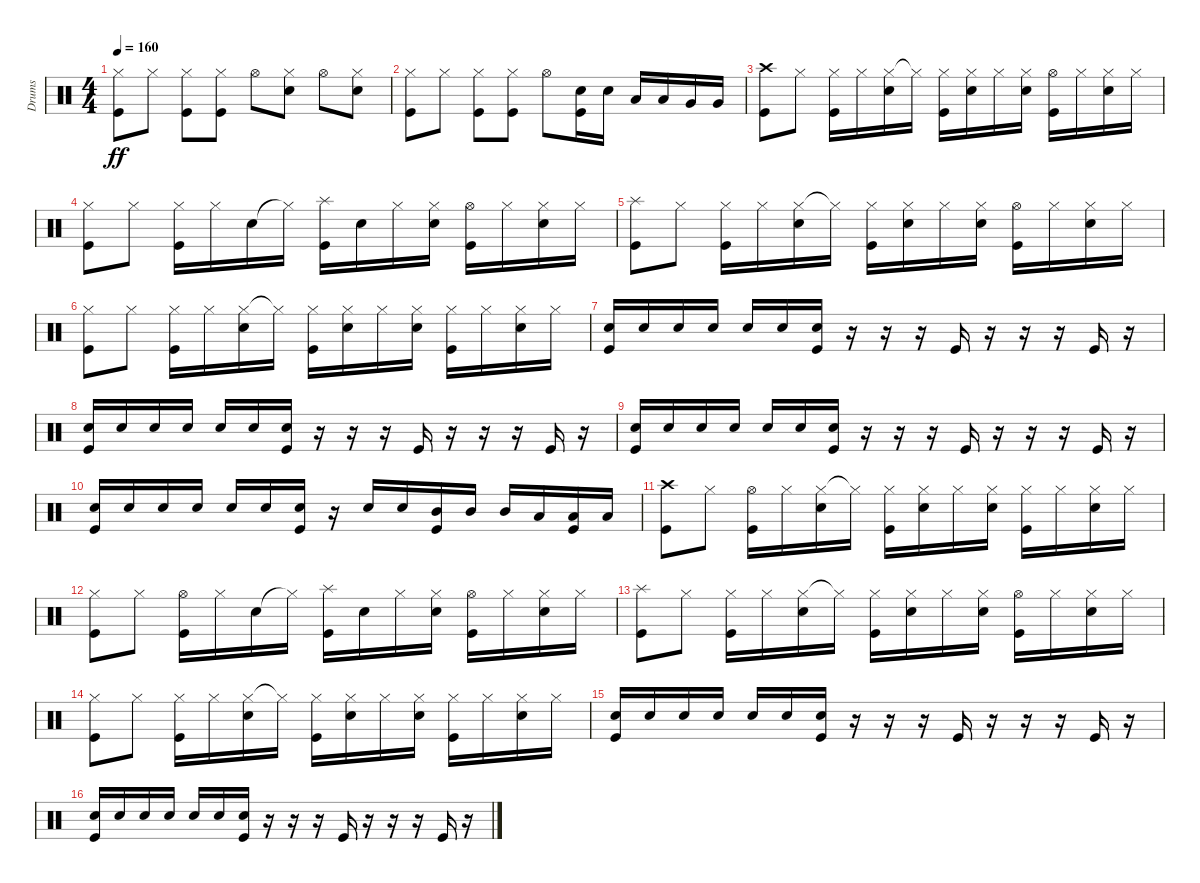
\track ("Drums" "Drums") {instrument percussion}
\staff {score}
\articulation defaults
\ts (4 4)
\tempo 160
\clef neutral
\ks c
("Hi-Hat (closed)" "Kick (hit)").8{dy ff} "Hi-Hat (closed)".8 ("Hi-Hat (closed)" "Kick (hit)").8 ("Hi-Hat (closed)" "Kick (hit)").8 "Hi-Hat (open)".8 ("Hi-Hat (closed)" "Electric Snare (hit)").8 "Hi-Hat (open)".8 ("Hi-Hat (closed)" "Electric Snare (hit)").8 |
("Hi-Hat (closed)" "Kick (hit)").8 "Hi-Hat (closed)".8 ("Hi-Hat (closed)" "Kick (hit)").8 ("Hi-Hat (closed)" "Kick (hit)").8 "Hi-Hat (open)".8 ("Electric Snare (hit)" "Kick (hit)").16 "Electric Snare (hit)".16 "Low Tom (hit)".16 "Low Tom (hit)".16 "Very Low Tom (hit)".16 "Very Low Tom (hit)".16 |
("Crash high (hit)" "Kick (hit)").8 "Hi-Hat (closed)".8 ("Hi-Hat (closed)" "Kick (hit)").16 "Hi-Hat (closed)".16 ("Hi-Hat (closed)" "Electric Snare (hit)").16 "Hi-Hat (closed)"{t}.16 ("Hi-Hat (closed)" "Kick (hit)").16 ("Hi-Hat (closed)" "Electric Snare (hit)").16 "Hi-Hat (closed)".16 ("Hi-Hat (closed)" "Electric Snare (hit)").16 ("Hi-Hat (open)" "Kick (hit)").16 "Hi-Hat (closed)".16 ("Hi-Hat (closed)" "Electric Snare (hit)").16 "Hi-Hat (closed)".16 |
("Hi-Hat (closed)" "Kick (hit)").8 "Hi-Hat (closed)".8 ("Hi-Hat (closed)" "Kick (hit)").16 "Hi-Hat (closed)".16 "Electric Snare (hit)".16 "Hi-Hat (closed)"{t}.16 ("Splash (hit)" "Kick (hit)").16 "Electric Snare (hit)".16 "Hi-Hat (closed)".16 ("Hi-Hat (closed)" "Electric Snare (hit)").16 ("Hi-Hat (open)" "Kick (hit)").16 "Hi-Hat (closed)".16 ("Hi-Hat (closed)" "Electric Snare (hit)").16 "Hi-Hat (closed)".16 |
("Splash (hit)" "Kick (hit)").8 "Hi-Hat (closed)".8 ("Hi-Hat (closed)" "Kick (hit)").16 "Hi-Hat (closed)".16 ("Hi-Hat (closed)" "Electric Snare (hit)").16 "Hi-Hat (closed)"{t}.16 ("Hi-Hat (closed)" "Kick (hit)").16 ("Hi-Hat (closed)" "Electric Snare (hit)").16 "Hi-Hat (closed)".16 ("Hi-Hat (closed)" "Electric Snare (hit)").16 ("Hi-Hat (open)" "Kick (hit)").16 "Hi-Hat (closed)".16 ("Hi-Hat (closed)" "Electric Snare (hit)").16 "Hi-Hat (closed)".16 |
("Hi-Hat (closed)" "Kick (hit)").8 "Hi-Hat (closed)".8 ("Hi-Hat (closed)" "Kick (hit)").16 "Hi-Hat (closed)".16 ("Hi-Hat (closed)" "Electric Snare (hit)").16 "Hi-Hat (closed)"{t}.16 ("Hi-Hat (closed)" "Kick (hit)").16 ("Hi-Hat (closed)" "Electric Snare (hit)").16 "Hi-Hat (closed)".16 ("Hi-Hat (closed)" "Electric Snare (hit)").16 ("Hi-Hat (closed)" "Kick (hit)").16 "Hi-Hat (closed)".16 ("Hi-Hat (closed)" "Electric Snare (hit)").16 "Hi-Hat (closed)".16 |
("Electric Snare (hit)" "Kick (hit)").16 "Electric Snare (hit)".16 "Electric Snare (hit)".16 "Electric Snare (hit)".16 "Electric Snare (hit)".16 "Electric Snare (hit)".16 ("Electric Snare (hit)" "Kick (hit)").16 r.16 r.16 r.16 "Kick (hit)".16 r.16 r.16 r.16 "Kick (hit)".16 r.16 |
("Electric Snare (hit)" "Kick (hit)").16 "Electric Snare (hit)".16 "Electric Snare (hit)".16 "Electric Snare (hit)".16 "Electric Snare (hit)".16 "Electric Snare (hit)".16 ("Electric Snare (hit)" "Kick (hit)").16 r.16 r.16 r.16 "Kick (hit)".16 r.16 r.16 r.16 "Kick (hit)".16 r.16 |
("Electric Snare (hit)" "Kick (hit)").16 "Electric Snare (hit)".16 "Electric Snare (hit)".16 "Electric Snare (hit)".16 "Electric Snare (hit)".16 "Electric Snare (hit)".16 ("Electric Snare (hit)" "Kick (hit)").16 r.16 r.16 r.16 "Kick (hit)".16 r.16 r.16 r.16 "Kick (hit)".16 r.16 |
("Electric Snare (hit)" "Kick (hit)").16 "Electric Snare (hit)".16 "Electric Snare (hit)".16 "Electric Snare (hit)".16 "Electric Snare (hit)".16 "Electric Snare (hit)".16 ("Electric Snare (hit)" "Kick (hit)").16 r.16 "Electric Snare (hit)".16 "Electric Snare (hit)".16 ("Mid Tom (hit)" "Kick (hit)").16 "Mid Tom (hit)".16 "Mid Tom (hit)".16 "Low Tom (hit)".16 ("Low Tom (hit)" "Kick (hit)").16 "Low Tom (hit)".16 |
("Crash high (hit)" "Kick (hit)").8 "Hi-Hat (closed)".8 ("Hi-Hat (open)" "Kick (hit)").16 "Hi-Hat (closed)".16 ("Hi-Hat (closed)" "Electric Snare (hit)").16 "Hi-Hat (closed)"{t}.16 ("Hi-Hat (closed)" "Kick (hit)").16 ("Hi-Hat (closed)" "Electric Snare (hit)").16 "Hi-Hat (closed)".16 ("Hi-Hat (closed)" "Electric Snare (hit)").16 ("Hi-Hat (closed)" "Kick (hit)").16 "Hi-Hat (closed)".16 ("Hi-Hat (closed)" "Electric Snare (hit)").16 "Hi-Hat (closed)".16 |
("Hi-Hat (closed)" "Kick (hit)").8 "Hi-Hat (closed)".8 ("Hi-Hat (open)" "Kick (hit)").16 "Hi-Hat (closed)".16 "Electric Snare (hit)".16 "Hi-Hat (closed)"{t}.16 ("Splash (hit)" "Kick (hit)").16 "Electric Snare (hit)".16 "Hi-Hat (closed)".16 ("Hi-Hat (closed)" "Electric Snare (hit)").16 ("Hi-Hat (open)" "Kick (hit)").16 "Hi-Hat (closed)".16 ("Hi-Hat (closed)" "Electric Snare (hit)").16 "Hi-Hat (closed)".16 |
("Splash (hit)" "Kick (hit)").8 "Hi-Hat (closed)".8 ("Hi-Hat (closed)" "Kick (hit)").16 "Hi-Hat (closed)".16 ("Hi-Hat (closed)" "Electric Snare (hit)").16 "Hi-Hat (closed)"{t}.16 ("Hi-Hat (closed)" "Kick (hit)").16 ("Hi-Hat (closed)" "Electric Snare (hit)").16 "Hi-Hat (closed)".16 ("Hi-Hat (closed)" "Electric Snare (hit)").16 ("Hi-Hat (open)" "Kick (hit)").16 "Hi-Hat (closed)".16 ("Hi-Hat (closed)" "Electric Snare (hit)").16 "Hi-Hat (closed)".16 |
("Hi-Hat (closed)" "Kick (hit)").8 "Hi-Hat (closed)".8 ("Hi-Hat (closed)" "Kick (hit)").16 "Hi-Hat (closed)".16 ("Hi-Hat (closed)" "Electric Snare (hit)").16 "Hi-Hat (closed)"{t}.16 ("Hi-Hat (closed)" "Kick (hit)").16 ("Hi-Hat (closed)" "Electric Snare (hit)").16 "Hi-Hat (closed)".16 ("Hi-Hat (closed)" "Electric Snare (hit)").16 ("Hi-Hat (closed)" "Kick (hit)").16 "Hi-Hat (closed)".16 ("Hi-Hat (closed)" "Electric Snare (hit)").16 "Hi-Hat (closed)".16 |
("Electric Snare (hit)" "Kick (hit)").16 "Electric Snare (hit)".16 "Electric Snare (hit)".16 "Electric Snare (hit)".16 "Electric Snare (hit)".16 "Electric Snare (hit)".16 ("Electric Snare (hit)" "Kick (hit)").16 r.16 r.16 r.16 "Kick (hit)".16 r.16 r.16 r.16 "Kick (hit)".16 r.16 |
("Electric Snare (hit)" "Kick (hit)").16 "Electric Snare (hit)".16 "Electric Snare (hit)".16 "Electric Snare (hit)".16 "Electric Snare (hit)".16 "Electric Snare (hit)".16 ("Electric Snare (hit)" "Kick (hit)").16 r.16 r.16 r.16 "Kick (hit)".16 r.16 r.16 r.16 "Kick (hit)".16 r.16
